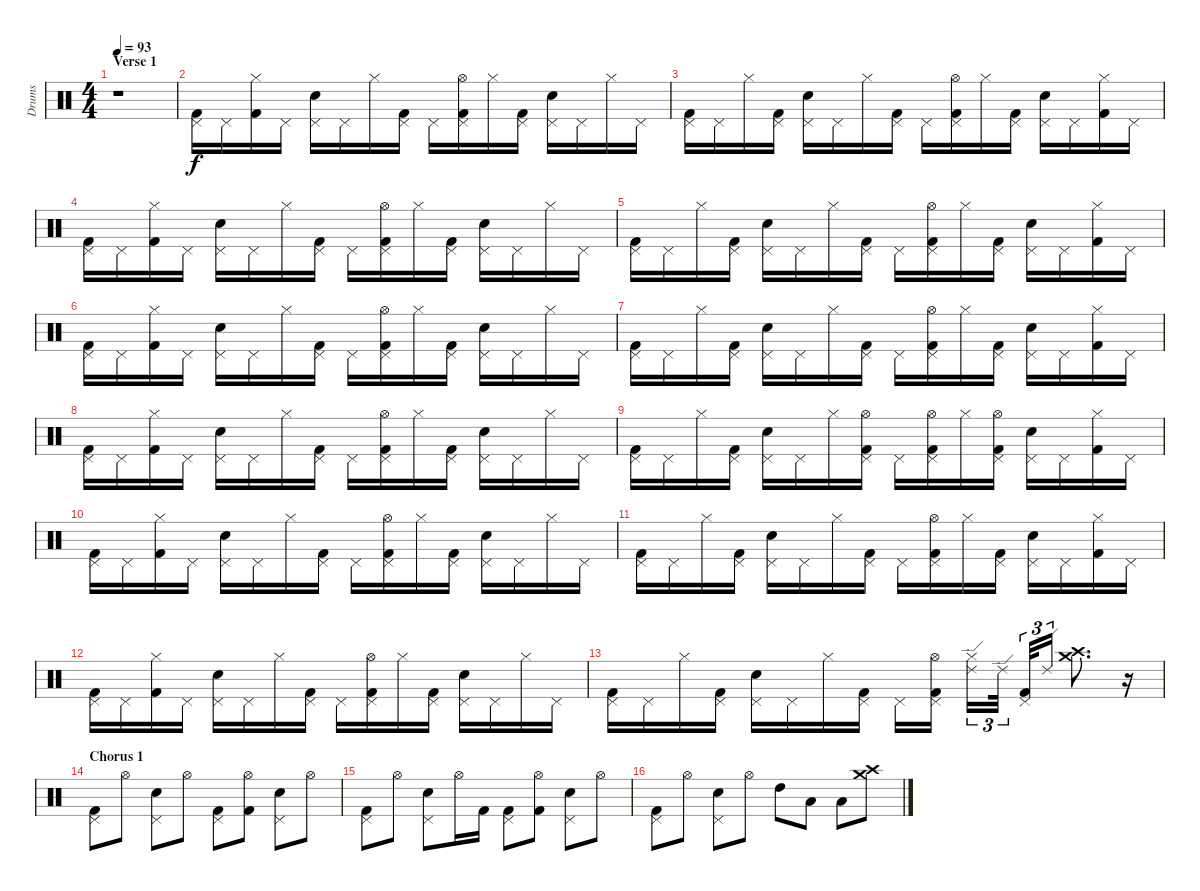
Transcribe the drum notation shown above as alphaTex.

\track ("Drums" "Drums") {instrument percussion}
\staff {score}
\articulation defaults
\ts (4 4)
\section ("" "Verse 1")
\tempo 93
\clef neutral
\ks c
r.1{dy f} |
("Pedal Hi-Hat (hit)" "Kick (hit) 2").16 "Pedal Hi-Hat (hit)".16 ("Hi-Hat (closed)" "Kick (hit) 2").16 "Pedal Hi-Hat (hit)".16 ("Pedal Hi-Hat (hit)" "Snare (hit) 2").16 "Pedal Hi-Hat (hit)".16 "Hi-Hat (closed)".16 ("Pedal Hi-Hat (hit)" "Kick (hit) 2").16 "Pedal Hi-Hat (hit)".16 ("Pedal Hi-Hat (hit)" "Kick (hit) 2" "Hi-Hat (open)").16 "Hi-Hat (closed)".16 ("Pedal Hi-Hat (hit)" "Kick (hit) 2").16 ("Pedal Hi-Hat (hit)" "Snare (hit) 2").16 "Pedal Hi-Hat (hit)".16 "Hi-Hat (closed)".16 "Pedal Hi-Hat (hit)".16 |
("Pedal Hi-Hat (hit)" "Kick (hit) 2").16 "Pedal Hi-Hat (hit)".16 "Hi-Hat (closed)".16 ("Pedal Hi-Hat (hit)" "Kick (hit) 2").16 ("Pedal Hi-Hat (hit)" "Snare (hit) 2").16 "Pedal Hi-Hat (hit)".16 "Hi-Hat (closed)".16 ("Pedal Hi-Hat (hit)" "Kick (hit) 2").16 "Pedal Hi-Hat (hit)".16 ("Pedal Hi-Hat (hit)" "Kick (hit) 2" "Hi-Hat (open)").16 "Hi-Hat (closed)".16 ("Pedal Hi-Hat (hit)" "Kick (hit) 2").16 ("Pedal Hi-Hat (hit)" "Snare (hit) 2").16 "Pedal Hi-Hat (hit)".16 ("Hi-Hat (closed)" "Kick (hit) 2").16 "Pedal Hi-Hat (hit)".16 |
("Pedal Hi-Hat (hit)" "Kick (hit) 2").16 "Pedal Hi-Hat (hit)".16 ("Hi-Hat (closed)" "Kick (hit) 2").16 "Pedal Hi-Hat (hit)".16 ("Pedal Hi-Hat (hit)" "Snare (hit) 2").16 "Pedal Hi-Hat (hit)".16 "Hi-Hat (closed)".16 ("Pedal Hi-Hat (hit)" "Kick (hit) 2").16 "Pedal Hi-Hat (hit)".16 ("Pedal Hi-Hat (hit)" "Kick (hit) 2" "Hi-Hat (open)").16 "Hi-Hat (closed)".16 ("Pedal Hi-Hat (hit)" "Kick (hit) 2").16 ("Pedal Hi-Hat (hit)" "Snare (hit) 2").16 "Pedal Hi-Hat (hit)".16 "Hi-Hat (closed)".16 "Pedal Hi-Hat (hit)".16 |
("Pedal Hi-Hat (hit)" "Kick (hit) 2").16 "Pedal Hi-Hat (hit)".16 "Hi-Hat (closed)".16 ("Pedal Hi-Hat (hit)" "Kick (hit) 2").16 ("Pedal Hi-Hat (hit)" "Snare (hit) 2").16 "Pedal Hi-Hat (hit)".16 "Hi-Hat (closed)".16 ("Pedal Hi-Hat (hit)" "Kick (hit) 2").16 "Pedal Hi-Hat (hit)".16 ("Pedal Hi-Hat (hit)" "Kick (hit) 2" "Hi-Hat (open)").16 "Hi-Hat (closed)".16 ("Pedal Hi-Hat (hit)" "Kick (hit) 2").16 ("Pedal Hi-Hat (hit)" "Snare (hit) 2").16 "Pedal Hi-Hat (hit)".16 ("Hi-Hat (closed)" "Kick (hit) 2").16 "Pedal Hi-Hat (hit)".16 |
("Pedal Hi-Hat (hit)" "Kick (hit) 2").16 "Pedal Hi-Hat (hit)".16 ("Hi-Hat (closed)" "Kick (hit) 2").16 "Pedal Hi-Hat (hit)".16 ("Pedal Hi-Hat (hit)" "Snare (hit) 2").16 "Pedal Hi-Hat (hit)".16 "Hi-Hat (closed)".16 ("Pedal Hi-Hat (hit)" "Kick (hit) 2").16 "Pedal Hi-Hat (hit)".16 ("Pedal Hi-Hat (hit)" "Kick (hit) 2" "Hi-Hat (open)").16 "Hi-Hat (closed)".16 ("Pedal Hi-Hat (hit)" "Kick (hit) 2").16 ("Pedal Hi-Hat (hit)" "Snare (hit) 2").16 "Pedal Hi-Hat (hit)".16 "Hi-Hat (closed)".16 "Pedal Hi-Hat (hit)".16 |
("Pedal Hi-Hat (hit)" "Kick (hit) 2").16 "Pedal Hi-Hat (hit)".16 "Hi-Hat (closed)".16 ("Pedal Hi-Hat (hit)" "Kick (hit) 2").16 ("Pedal Hi-Hat (hit)" "Snare (hit) 2").16 "Pedal Hi-Hat (hit)".16 "Hi-Hat (closed)".16 ("Pedal Hi-Hat (hit)" "Kick (hit) 2").16 "Pedal Hi-Hat (hit)".16 ("Pedal Hi-Hat (hit)" "Kick (hit) 2" "Hi-Hat (open)").16 "Hi-Hat (closed)".16 ("Pedal Hi-Hat (hit)" "Kick (hit) 2").16 ("Pedal Hi-Hat (hit)" "Snare (hit) 2").16 "Pedal Hi-Hat (hit)".16 ("Hi-Hat (closed)" "Kick (hit) 2").16 "Pedal Hi-Hat (hit)".16 |
("Pedal Hi-Hat (hit)" "Kick (hit) 2").16 "Pedal Hi-Hat (hit)".16 ("Hi-Hat (closed)" "Kick (hit) 2").16 "Pedal Hi-Hat (hit)".16 ("Pedal Hi-Hat (hit)" "Snare (hit) 2").16 "Pedal Hi-Hat (hit)".16 "Hi-Hat (closed)".16 ("Pedal Hi-Hat (hit)" "Kick (hit) 2").16 "Pedal Hi-Hat (hit)".16 ("Pedal Hi-Hat (hit)" "Kick (hit) 2" "Hi-Hat (open)").16 "Hi-Hat (closed)".16 ("Pedal Hi-Hat (hit)" "Kick (hit) 2").16 ("Pedal Hi-Hat (hit)" "Snare (hit) 2").16 "Pedal Hi-Hat (hit)".16 "Hi-Hat (closed)".16 "Pedal Hi-Hat (hit)".16 |
("Pedal Hi-Hat (hit)" "Kick (hit) 2").16 "Pedal Hi-Hat (hit)".16 "Hi-Hat (closed)".16 ("Pedal Hi-Hat (hit)" "Kick (hit) 2").16 ("Pedal Hi-Hat (hit)" "Snare (hit) 2").16 "Pedal Hi-Hat (hit)".16 "Hi-Hat (closed)".16 ("Pedal Hi-Hat (hit)" "Kick (hit) 2" "Hi-Hat (open)").16 "Pedal Hi-Hat (hit)".16 ("Pedal Hi-Hat (hit)" "Kick (hit) 2" "Hi-Hat (open)").16 "Hi-Hat (closed)".16 ("Pedal Hi-Hat (hit)" "Kick (hit) 2" "Hi-Hat (open)").16 ("Pedal Hi-Hat (hit)" "Snare (hit) 2").16 "Pedal Hi-Hat (hit)".16 ("Hi-Hat (closed)" "Kick (hit) 2").16 "Pedal Hi-Hat (hit)".16 |
("Pedal Hi-Hat (hit)" "Kick (hit) 2").16 "Pedal Hi-Hat (hit)".16 ("Hi-Hat (closed)" "Kick (hit) 2").16 "Pedal Hi-Hat (hit)".16 ("Pedal Hi-Hat (hit)" "Snare (hit) 2").16 "Pedal Hi-Hat (hit)".16 "Hi-Hat (closed)".16 ("Pedal Hi-Hat (hit)" "Kick (hit) 2").16 "Pedal Hi-Hat (hit)".16 ("Pedal Hi-Hat (hit)" "Kick (hit) 2" "Hi-Hat (open)").16 "Hi-Hat (closed)".16 ("Pedal Hi-Hat (hit)" "Kick (hit) 2").16 ("Pedal Hi-Hat (hit)" "Snare (hit) 2").16 "Pedal Hi-Hat (hit)".16 "Hi-Hat (closed)".16 "Pedal Hi-Hat (hit)".16 |
("Pedal Hi-Hat (hit)" "Kick (hit) 2").16 "Pedal Hi-Hat (hit)".16 "Hi-Hat (closed)".16 ("Pedal Hi-Hat (hit)" "Kick (hit) 2").16 ("Pedal Hi-Hat (hit)" "Snare (hit) 2").16 "Pedal Hi-Hat (hit)".16 "Hi-Hat (closed)".16 ("Pedal Hi-Hat (hit)" "Kick (hit) 2").16 "Pedal Hi-Hat (hit)".16 ("Pedal Hi-Hat (hit)" "Kick (hit) 2" "Hi-Hat (open)").16 "Hi-Hat (closed)".16 ("Pedal Hi-Hat (hit)" "Kick (hit) 2").16 ("Pedal Hi-Hat (hit)" "Snare (hit) 2").16 "Pedal Hi-Hat (hit)".16 ("Hi-Hat (closed)" "Kick (hit) 2").16 "Pedal Hi-Hat (hit)".16 |
("Pedal Hi-Hat (hit)" "Kick (hit) 2").16 "Pedal Hi-Hat (hit)".16 ("Hi-Hat (closed)" "Kick (hit) 2").16 "Pedal Hi-Hat (hit)".16 ("Pedal Hi-Hat (hit)" "Snare (hit) 2").16 "Pedal Hi-Hat (hit)".16 "Hi-Hat (closed)".16 ("Pedal Hi-Hat (hit)" "Kick (hit) 2").16 "Pedal Hi-Hat (hit)".16 ("Pedal Hi-Hat (hit)" "Kick (hit) 2" "Hi-Hat (open)").16 "Hi-Hat (closed)".16 ("Pedal Hi-Hat (hit)" "Kick (hit) 2").16 ("Pedal Hi-Hat (hit)" "Snare (hit) 2").16 "Pedal Hi-Hat (hit)".16 "Hi-Hat (closed)".16 "Pedal Hi-Hat (hit)".16 |
("Pedal Hi-Hat (hit)" "Kick (hit) 2").16 "Pedal Hi-Hat (hit)".16 "Hi-Hat (closed)".16 ("Pedal Hi-Hat (hit)" "Kick (hit) 2").16 ("Pedal Hi-Hat (hit)" "Snare (hit) 2").16 "Pedal Hi-Hat (hit)".16 "Hi-Hat (closed)".16 ("Pedal Hi-Hat (hit)" "Kick (hit) 2").16 "Pedal Hi-Hat (hit)".16 ("Pedal Hi-Hat (hit)" "Kick (hit) 2" "Hi-Hat (open)").16 ("Ride (edge) 2" "Hi-Hat (closed)").16{tu (3 2)} "Ride (edge) 2".32{tu (3 2)} ("Pedal Hi-Hat (hit)" "Kick (hit) 2").32{tu (3 2)} "Ride (edge) 2".16{tu (3 2)} ("Crash medium (hit)" "Crash high (hit)").8{d} r.16 |
\section ("" "Chorus 1")
("Pedal Hi-Hat (hit)" "Kick (hit) 2").8 "Hi-Hat (open)".8 ("Pedal Hi-Hat (hit)" "Snare (hit) 2").8 "Hi-Hat (open)".8 ("Pedal Hi-Hat (hit)" "Kick (hit) 2").8 ("Hi-Hat (open)" "Kick (hit) 2").8 ("Pedal Hi-Hat (hit)" "Snare (hit) 2").8 "Hi-Hat (open)".8 |
("Pedal Hi-Hat (hit)" "Kick (hit) 2").8 "Hi-Hat (open)".8 ("Pedal Hi-Hat (hit)" "Snare (hit) 2").8 "Hi-Hat (open)".16 "Kick (hit) 2".16 ("Pedal Hi-Hat (hit)" "Kick (hit) 2").8 ("Hi-Hat (open)" "Kick (hit) 2").8 ("Pedal Hi-Hat (hit)" "Snare (hit) 2").8 "Hi-Hat (open)".8 |
("Pedal Hi-Hat (hit)" "Kick (hit) 2").8 "Hi-Hat (open)".8 ("Pedal Hi-Hat (hit)" "Snare (hit) 2").8 "Hi-Hat (open)".8 "High Tom (hit)".8 "Low Tom (hit)".8 "Low Floor Tom (hit)".8 ("Crash high (hit)" "Crash medium (hit)").8
